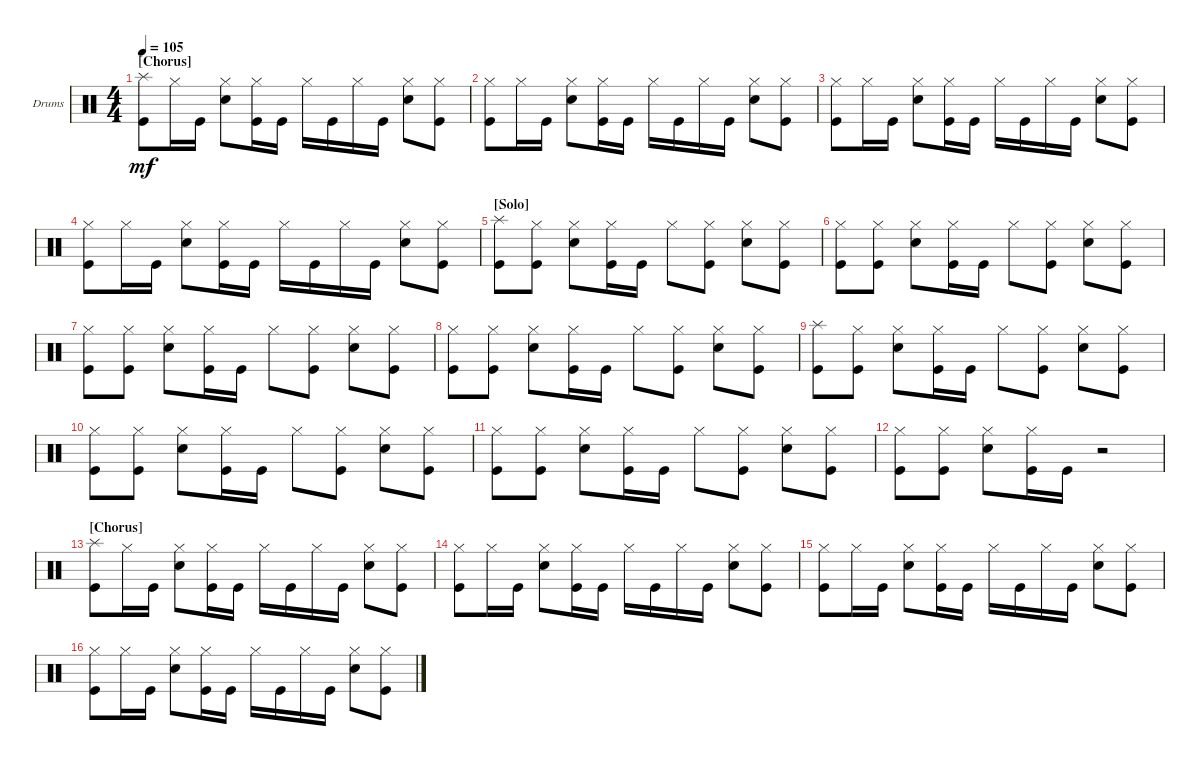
\bracketExtendMode groupsimilarinstruments
\firstSystemTrackNameOrientation horizontal
\otherSystemsTrackNameOrientation horizontal
\track ("Drumkit" "Drums") {instrument percussion}
\staff {score}
\articulation defaults
\ts (4 4)
\section ("" "[Chorus]")
\tempo 105
\clef neutral
\ks c
("Kick (hit)" "Splash (hit)").8{dy mf} "Hi-Hat (closed)".16 "Kick (hit)".16 ("Snare (hit) 2" "Hi-Hat (closed)").8 ("Kick (hit)" "Hi-Hat (closed)").16 "Kick (hit)".16 "Hi-Hat (closed)".16 "Kick (hit)".16 "Hi-Hat (closed)".16 "Kick (hit)".16 ("Snare (hit) 2" "Hi-Hat (closed)").8 ("Kick (hit)" "Hi-Hat (closed)").8 |
("Kick (hit)" "Hi-Hat (closed)").8 "Hi-Hat (closed)".16 "Kick (hit)".16 ("Snare (hit) 2" "Hi-Hat (closed)").8 ("Kick (hit)" "Hi-Hat (closed)").16 "Kick (hit)".16 "Hi-Hat (closed)".16 "Kick (hit)".16 "Hi-Hat (closed)".16 "Kick (hit)".16 ("Snare (hit) 2" "Hi-Hat (closed)").8 ("Kick (hit)" "Hi-Hat (closed)").8 |
("Kick (hit)" "Hi-Hat (closed)").8 "Hi-Hat (closed)".16 "Kick (hit)".16 ("Snare (hit) 2" "Hi-Hat (closed)").8 ("Kick (hit)" "Hi-Hat (closed)").16 "Kick (hit)".16 "Hi-Hat (closed)".16 "Kick (hit)".16 "Hi-Hat (closed)".16 "Kick (hit)".16 ("Snare (hit) 2" "Hi-Hat (closed)").8 ("Kick (hit)" "Hi-Hat (closed)").8 |
("Kick (hit)" "Hi-Hat (closed)").8 "Hi-Hat (closed)".16 "Kick (hit)".16 ("Snare (hit) 2" "Hi-Hat (closed)").8 ("Kick (hit)" "Hi-Hat (closed)").16 "Kick (hit)".16 "Hi-Hat (closed)".16 "Kick (hit)".16 "Hi-Hat (closed)".16 "Kick (hit)".16 ("Snare (hit) 2" "Hi-Hat (closed)").8 ("Kick (hit)" "Hi-Hat (closed)").8 |
\section ("" "[Solo]")
("Kick (hit)" "Splash (hit)").8 ("Hi-Hat (closed)" "Kick (hit)").8 ("Snare (hit) 2" "Hi-Hat (closed)").8 ("Kick (hit)" "Hi-Hat (closed)").16 "Kick (hit)".16 "Hi-Hat (closed)".8 ("Hi-Hat (closed)" "Kick (hit)").8 ("Snare (hit) 2" "Hi-Hat (closed)").8 ("Kick (hit)" "Hi-Hat (closed)").8 |
("Kick (hit)" "Hi-Hat (closed)").8 ("Hi-Hat (closed)" "Kick (hit)").8 ("Snare (hit) 2" "Hi-Hat (closed)").8 ("Kick (hit)" "Hi-Hat (closed)").16 "Kick (hit)".16 "Hi-Hat (closed)".8 ("Hi-Hat (closed)" "Kick (hit)").8 ("Snare (hit) 2" "Hi-Hat (closed)").8 ("Kick (hit)" "Hi-Hat (closed)").8 |
("Kick (hit)" "Hi-Hat (closed)").8 ("Hi-Hat (closed)" "Kick (hit)").8 ("Snare (hit) 2" "Hi-Hat (closed)").8 ("Kick (hit)" "Hi-Hat (closed)").16 "Kick (hit)".16 "Hi-Hat (closed)".8 ("Hi-Hat (closed)" "Kick (hit)").8 ("Snare (hit) 2" "Hi-Hat (closed)").8 ("Kick (hit)" "Hi-Hat (closed)").8 |
("Kick (hit)" "Hi-Hat (closed)").8 ("Hi-Hat (closed)" "Kick (hit)").8 ("Snare (hit) 2" "Hi-Hat (closed)").8 ("Kick (hit)" "Hi-Hat (closed)").16 "Kick (hit)".16 "Hi-Hat (closed)".8 ("Hi-Hat (closed)" "Kick (hit)").8 ("Snare (hit) 2" "Hi-Hat (closed)").8 ("Kick (hit)" "Hi-Hat (closed)").8 |
("Kick (hit)" "Splash (hit)").8 ("Hi-Hat (closed)" "Kick (hit)").8 ("Snare (hit) 2" "Hi-Hat (closed)").8 ("Kick (hit)" "Hi-Hat (closed)").16 "Kick (hit)".16 "Hi-Hat (closed)".8 ("Hi-Hat (closed)" "Kick (hit)").8 ("Snare (hit) 2" "Hi-Hat (closed)").8 ("Kick (hit)" "Hi-Hat (closed)").8 |
("Kick (hit)" "Hi-Hat (closed)").8 ("Hi-Hat (closed)" "Kick (hit)").8 ("Snare (hit) 2" "Hi-Hat (closed)").8 ("Kick (hit)" "Hi-Hat (closed)").16 "Kick (hit)".16 "Hi-Hat (closed)".8 ("Hi-Hat (closed)" "Kick (hit)").8 ("Snare (hit) 2" "Hi-Hat (closed)").8 ("Kick (hit)" "Hi-Hat (closed)").8 |
("Kick (hit)" "Hi-Hat (closed)").8 ("Hi-Hat (closed)" "Kick (hit)").8 ("Snare (hit) 2" "Hi-Hat (closed)").8 ("Kick (hit)" "Hi-Hat (closed)").16 "Kick (hit)".16 "Hi-Hat (closed)".8 ("Hi-Hat (closed)" "Kick (hit)").8 ("Snare (hit) 2" "Hi-Hat (closed)").8 ("Kick (hit)" "Hi-Hat (closed)").8 |
("Kick (hit)" "Hi-Hat (closed)").8 ("Hi-Hat (closed)" "Kick (hit)").8 ("Snare (hit) 2" "Hi-Hat (closed)").8 ("Kick (hit)" "Hi-Hat (closed)").16 "Kick (hit)".16 r.2 |
\section ("" "[Chorus]")
("Kick (hit)" "Splash (hit)").8 "Hi-Hat (closed)".16 "Kick (hit)".16 ("Snare (hit) 2" "Hi-Hat (closed)").8 ("Kick (hit)" "Hi-Hat (closed)").16 "Kick (hit)".16 "Hi-Hat (closed)".16 "Kick (hit)".16 "Hi-Hat (closed)".16 "Kick (hit)".16 ("Snare (hit) 2" "Hi-Hat (closed)").8 ("Kick (hit)" "Hi-Hat (closed)").8 |
("Kick (hit)" "Hi-Hat (closed)").8 "Hi-Hat (closed)".16 "Kick (hit)".16 ("Snare (hit) 2" "Hi-Hat (closed)").8 ("Kick (hit)" "Hi-Hat (closed)").16 "Kick (hit)".16 "Hi-Hat (closed)".16 "Kick (hit)".16 "Hi-Hat (closed)".16 "Kick (hit)".16 ("Snare (hit) 2" "Hi-Hat (closed)").8 ("Kick (hit)" "Hi-Hat (closed)").8 |
("Kick (hit)" "Hi-Hat (closed)").8 "Hi-Hat (closed)".16 "Kick (hit)".16 ("Snare (hit) 2" "Hi-Hat (closed)").8 ("Kick (hit)" "Hi-Hat (closed)").16 "Kick (hit)".16 "Hi-Hat (closed)".16 "Kick (hit)".16 "Hi-Hat (closed)".16 "Kick (hit)".16 ("Snare (hit) 2" "Hi-Hat (closed)").8 ("Kick (hit)" "Hi-Hat (closed)").8 |
("Kick (hit)" "Hi-Hat (closed)").8 "Hi-Hat (closed)".16 "Kick (hit)".16 ("Snare (hit) 2" "Hi-Hat (closed)").8 ("Kick (hit)" "Hi-Hat (closed)").16 "Kick (hit)".16 "Hi-Hat (closed)".16 "Kick (hit)".16 "Hi-Hat (closed)".16 "Kick (hit)".16 ("Snare (hit) 2" "Hi-Hat (closed)").8 ("Kick (hit)" "Hi-Hat (closed)").8
